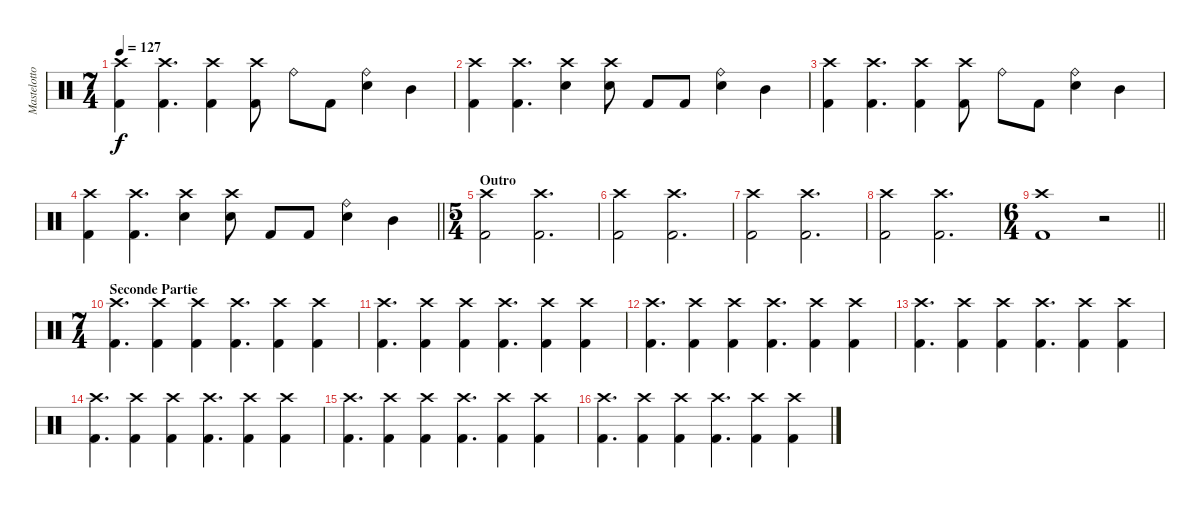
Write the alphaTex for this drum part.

\track ("Mastelotto" "Mastelotto") {instrument percussion}
\staff {score}
\articulation defaults
\ts (7 4)
\tempo 127
\clef neutral
\ks c
("Crash high (hit)" "Kick (hit) 2").4{dy f} ("Crash high (hit)" "Kick (hit) 2").4{d} ("Crash high (hit)" "Kick (hit) 2").4 ("Crash high (hit)" "Kick (hit) 2").8 "Ride (bell)".8 "Kick (hit) 2".8 ("Ride (bell)" "Electric Snare (hit)").4 "Mid Tom (hit)".4 |
("Crash high (hit)" "Kick (hit) 2").4 ("Crash high (hit)" "Kick (hit) 2").4{d} ("Crash high (hit)" "Electric Snare (hit)").4 ("Crash high (hit)" "Electric Snare (hit)").8 "Kick (hit) 2".8 "Kick (hit) 2".8 ("Ride (bell)" "Electric Snare (hit)").4 "Mid Tom (hit)".4 |
("Crash high (hit)" "Kick (hit) 2").4 ("Crash high (hit)" "Kick (hit) 2").4{d} ("Crash high (hit)" "Kick (hit) 2").4 ("Crash high (hit)" "Kick (hit) 2").8 "Ride (bell)".8 "Kick (hit) 2".8 ("Ride (bell)" "Electric Snare (hit)").4 "Mid Tom (hit)".4 |
\barLineRight lightlight
("Crash high (hit)" "Kick (hit) 2").4 ("Crash high (hit)" "Kick (hit) 2").4{d} ("Crash high (hit)" "Electric Snare (hit)").4 ("Crash high (hit)" "Electric Snare (hit)").8 "Kick (hit) 2".8 "Kick (hit) 2".8 ("Ride (bell)" "Electric Snare (hit)").4 "Mid Tom (hit)".4 |
\ts (5 4)
\section ("" "Outro")
("Crash high (hit)" "Kick (hit) 2").2 ("Crash high (hit)" "Kick (hit) 2").2{d} |
("Crash high (hit)" "Kick (hit) 2").2 ("Crash high (hit)" "Kick (hit) 2").2{d} |
("Crash high (hit)" "Kick (hit) 2").2 ("Crash high (hit)" "Kick (hit) 2").2{d} |
("Crash high (hit)" "Kick (hit) 2").2 ("Crash high (hit)" "Kick (hit) 2").2{d} |
\ts (6 4)
\barLineRight lightlight
("Crash high (hit)" "Kick (hit) 2").1 r.2 |
\ts (7 4)
\section ("" "Seconde Partie")
("Crash high (hit)" "Kick (hit) 2").4{d} ("Crash high (hit)" "Kick (hit) 2").4 ("Crash high (hit)" "Kick (hit) 2").4 ("Crash high (hit)" "Kick (hit) 2").4{d} ("Crash high (hit)" "Kick (hit) 2").4 ("Crash high (hit)" "Kick (hit) 2").4 |
("Crash high (hit)" "Kick (hit) 2").4{d} ("Crash high (hit)" "Kick (hit) 2").4 ("Crash high (hit)" "Kick (hit) 2").4 ("Crash high (hit)" "Kick (hit) 2").4{d} ("Crash high (hit)" "Kick (hit) 2").4 ("Crash high (hit)" "Kick (hit) 2").4 |
("Crash high (hit)" "Kick (hit) 2").4{d} ("Crash high (hit)" "Kick (hit) 2").4 ("Crash high (hit)" "Kick (hit) 2").4 ("Crash high (hit)" "Kick (hit) 2").4{d} ("Crash high (hit)" "Kick (hit) 2").4 ("Crash high (hit)" "Kick (hit) 2").4 |
("Crash high (hit)" "Kick (hit) 2").4{d} ("Crash high (hit)" "Kick (hit) 2").4 ("Crash high (hit)" "Kick (hit) 2").4 ("Crash high (hit)" "Kick (hit) 2").4{d} ("Crash high (hit)" "Kick (hit) 2").4 ("Crash high (hit)" "Kick (hit) 2").4 |
("Crash high (hit)" "Kick (hit) 2").4{d} ("Crash high (hit)" "Kick (hit) 2").4 ("Crash high (hit)" "Kick (hit) 2").4 ("Crash high (hit)" "Kick (hit) 2").4{d} ("Crash high (hit)" "Kick (hit) 2").4 ("Crash high (hit)" "Kick (hit) 2").4 |
("Crash high (hit)" "Kick (hit) 2").4{d} ("Crash high (hit)" "Kick (hit) 2").4 ("Crash high (hit)" "Kick (hit) 2").4 ("Crash high (hit)" "Kick (hit) 2").4{d} ("Crash high (hit)" "Kick (hit) 2").4 ("Crash high (hit)" "Kick (hit) 2").4 |
("Crash high (hit)" "Kick (hit) 2").4{d} ("Crash high (hit)" "Kick (hit) 2").4 ("Crash high (hit)" "Kick (hit) 2").4 ("Crash high (hit)" "Kick (hit) 2").4{d} ("Crash high (hit)" "Kick (hit) 2").4 ("Crash high (hit)" "Kick (hit) 2").4
